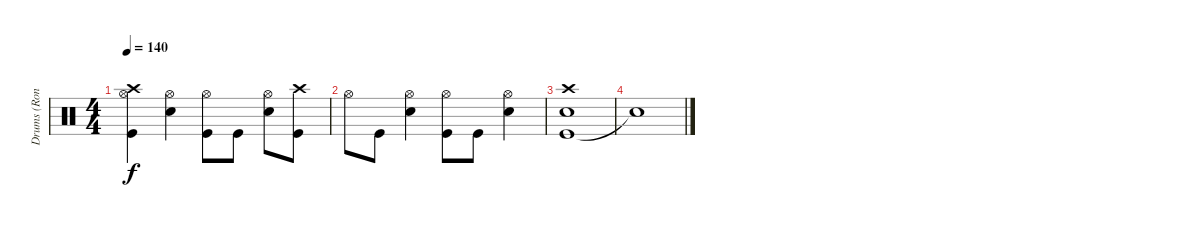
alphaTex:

\track ("Drums (Ron Welty)" "Drums (Ron") {instrument percussion}
\staff {score}
\articulation defaults
\ts (4 4)
\tempo 140
\clef neutral
\ks c
("Kick (hit)" "Crash high (hit)" "Hi-Hat (open)").4{dy f} ("Snare (hit) 2" "Hi-Hat (open)").4 ("Kick (hit)" "Hi-Hat (open)").8 "Kick (hit)".8 ("Snare (hit) 2" "Hi-Hat (open)").8 ("Kick (hit)" "Crash high (hit)").8 |
"Hi-Hat (open)".8 "Kick (hit)".8 ("Snare (hit) 2" "Hi-Hat (open)").4 ("Kick (hit)" "Hi-Hat (open)").8 "Kick (hit)".8 ("Snare (hit) 2" "Hi-Hat (open)").4 |
("Kick (hit)" "Snare (hit) 2" "Crash high (hit)").1 |
"Snare (hit)"{t}.1
